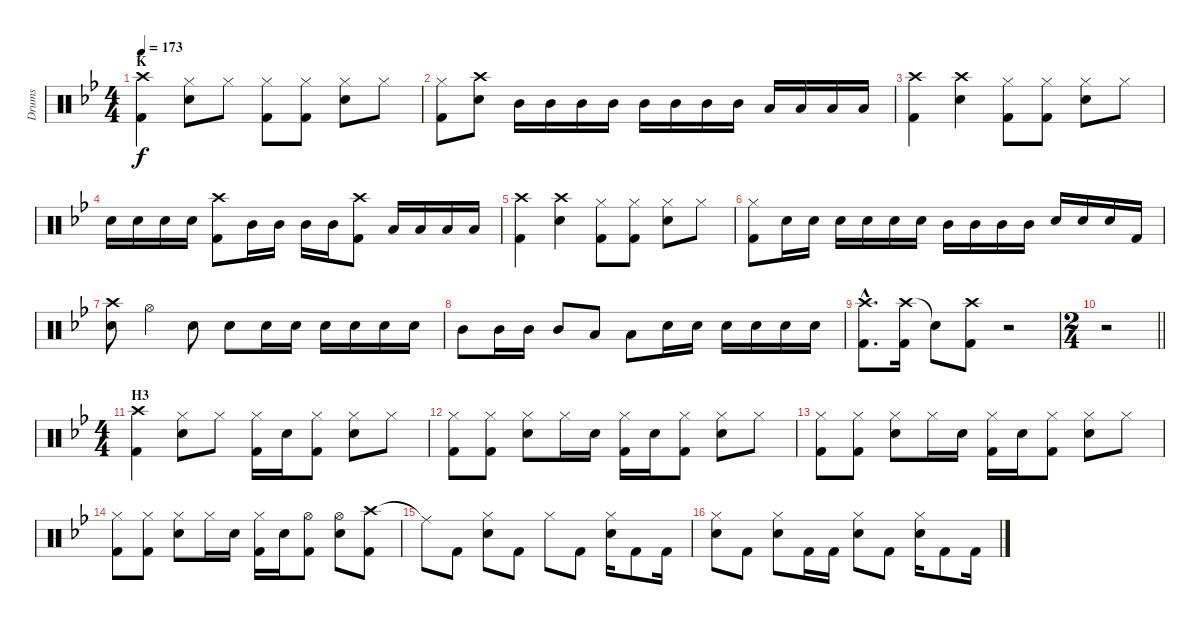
\track ("Drums" "Drums") {instrument percussion}
\staff {score}
\articulation defaults
\ts (4 4)
\section ("" "K")
\tempo 173
\clef neutral
\ks bb
("Crash high (hit)" "Kick (hit) 2").4{dy f} ("Hi-Hat (closed)" "Snare (hit) 2").8 "Hi-Hat (closed)".8 ("Hi-Hat (closed)" "Kick (hit) 2").8 ("Hi-Hat (closed)" "Kick (hit) 2").8 ("Hi-Hat (closed)" "Snare (hit) 2").8 "Hi-Hat (closed)".8 |
("Hi-Hat (closed)" "Kick (hit) 2").8 ("Crash high (hit)" "Snare (hit) 2").8 "Mid Tom (hit)".16 "Mid Tom (hit)".16 "Mid Tom (hit)".16 "Mid Tom (hit)".16 "Mid Tom (hit)".16 "Mid Tom (hit)".16 "Mid Tom (hit)".16 "Mid Tom (hit)".16 "Low Tom (hit)".16 "Low Tom (hit)".16 "Low Tom (hit)".16 "Low Tom (hit)".16 |
("Crash high (hit)" "Kick (hit) 2").4 ("Crash high (hit)" "Snare (hit) 2").4 ("Hi-Hat (closed)" "Kick (hit) 2").8 ("Hi-Hat (closed)" "Kick (hit) 2").8 ("Hi-Hat (closed)" "Snare (hit) 2").8 "Hi-Hat (closed)".8 |
"Snare (hit) 2".16 "Snare (hit) 2".16 "Snare (hit) 2".16 "Snare (hit) 2".16 ("Crash high (hit)" "Kick (hit) 2").8 "Mid Tom (hit)".16 "Mid Tom (hit)".16 "Mid Tom (hit)".16 "Mid Tom (hit)".16 ("Crash high (hit)" "Kick (hit) 2").8 "Low Tom (hit)".16 "Low Tom (hit)".16 "Low Tom (hit)".16 "Low Tom (hit)".16 |
("Crash high (hit)" "Kick (hit) 2").4 ("Crash high (hit)" "Snare (hit) 2").4 ("Hi-Hat (closed)" "Kick (hit) 2").8 ("Hi-Hat (closed)" "Kick (hit) 2").8 ("Hi-Hat (closed)" "Snare (hit) 2").8 "Hi-Hat (closed)".8 |
("Hi-Hat (closed)" "Kick (hit) 2").8 "Snare (hit) 2".16 "Snare (hit) 2".16 "Snare (hit) 2".16 "Snare (hit) 2".16 "Snare (hit) 2".16 "Snare (hit) 2".16 "Mid Tom (hit)".16 "Mid Tom (hit)".16 "Mid Tom (hit)".16 "Mid Tom (hit)".16 "Snare (hit) 2".16 "Snare (hit) 2".16 "Snare (hit) 2".16 "Kick (hit) 2".16 |
("Crash high (hit)" "Snare (hit) 2").8 "Hi-Hat (open)".4 "Snare (hit) 2".8 "Snare (hit) 2".8 "Snare (hit) 2".16 "Snare (hit) 2".16 "Snare (hit) 2".16 "Snare (hit) 2".16 "Snare (hit) 2".16 "Snare (hit) 2".16 |
"Mid Tom (hit)".8 "Mid Tom (hit)".16 "Mid Tom (hit)".16 "Mid Tom (hit)".8 "Low Tom (hit)".8 "Low Tom (hit)".8 "Snare (hit) 2".16 "Snare (hit) 2".16 "Snare (hit) 2".16 "Snare (hit) 2".16 "Snare (hit) 2".16 "Snare (hit) 2".16 |
("Crash high (hit)"{hac} "Kick (hit) 2"{hac}).8{d} ("Crash high (hit)" "Kick (hit) 2").16 "Snare (hit)"{t}.8 ("Crash high (hit)" "Kick (hit) 2").8 r.2 |
\ts (2 4)
\barLineRight lightlight
r.2 |
\ts (4 4)
\section ("" "H3")
("Crash high (hit)" "Kick (hit) 2").4 ("Hi-Hat (closed)" "Snare (hit) 2").8 "Hi-Hat (closed)".8 ("Hi-Hat (closed)" "Kick (hit) 2").16 "Snare (hit) 2".16 ("Hi-Hat (closed)" "Kick (hit) 2").8 ("Hi-Hat (closed)" "Snare (hit) 2").8 "Hi-Hat (closed)".8 |
("Hi-Hat (closed)" "Kick (hit) 2").8 ("Hi-Hat (closed)" "Kick (hit) 2").8 ("Hi-Hat (closed)" "Snare (hit) 2").8 "Hi-Hat (closed)".16 "Snare (hit) 2".16 ("Hi-Hat (closed)" "Kick (hit) 2").16 "Snare (hit) 2".16 ("Hi-Hat (closed)" "Kick (hit) 2").8 ("Hi-Hat (closed)" "Snare (hit) 2").8 "Hi-Hat (closed)".8 |
("Hi-Hat (closed)" "Kick (hit) 2").8 ("Hi-Hat (closed)" "Kick (hit) 2").8 ("Hi-Hat (closed)" "Snare (hit) 2").8 "Hi-Hat (closed)".16 "Snare (hit) 2".16 ("Hi-Hat (closed)" "Kick (hit) 2").16 "Snare (hit) 2".16 ("Hi-Hat (closed)" "Kick (hit) 2").8 ("Hi-Hat (closed)" "Snare (hit) 2").8 "Hi-Hat (closed)".8 |
("Hi-Hat (closed)" "Kick (hit) 2").8 ("Hi-Hat (closed)" "Kick (hit) 2").8 ("Hi-Hat (closed)" "Snare (hit) 2").8 "Hi-Hat (closed)".16 "Snare (hit) 2".16 ("Hi-Hat (closed)" "Kick (hit) 2").16 "Snare (hit) 2".16 ("Hi-Hat (open)" "Kick (hit) 2").8 ("Hi-Hat (open)" "Snare (hit) 2").8 ("Crash high (hit)" "Kick (hit) 2").8 |
"Ride (middle)"{t}.8 "Kick (hit) 2".8 ("Hi-Hat (closed)" "Snare (hit) 2").8 "Kick (hit) 2".8 "Hi-Hat (closed)".8 "Kick (hit) 2".8 ("Hi-Hat (closed)" "Snare (hit) 2").16 "Kick (hit) 2".8 "Kick (hit) 2".16 |
("Hi-Hat (closed)" "Snare (hit) 2").8 "Kick (hit) 2".8 ("Hi-Hat (closed)" "Snare (hit) 2").8 "Kick (hit) 2".16 "Kick (hit) 2".16 ("Hi-Hat (closed)" "Snare (hit) 2").8 "Kick (hit) 2".8 ("Hi-Hat (closed)" "Snare (hit) 2").16 "Kick (hit) 2".8 "Kick (hit) 2".16
